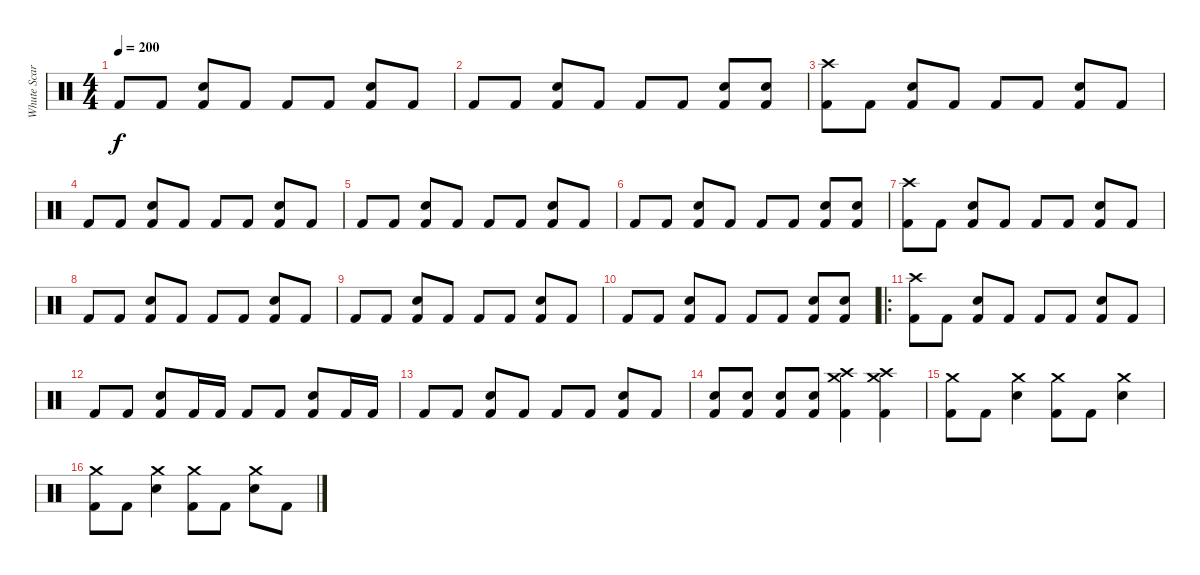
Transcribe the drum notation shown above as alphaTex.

\track ("Whute Scar" "Whute Scar") {instrument percussion}
\staff {score}
\articulation defaults
\ts (4 4)
\tempo 200
\clef neutral
\ks c "Kick (hit) 2".8{dy f} "Kick (hit) 2".8
("Snare (hit) 2" "Kick (hit) 2").8 "Kick (hit) 2".8 "Kick (hit) 2".8 "Kick (hit) 2".8 ("Snare (hit) 2" "Kick (hit) 2").8 "Kick (hit) 2".8 |
"Kick (hit) 2".8 "Kick (hit) 2".8 ("Snare (hit) 2" "Kick (hit) 2").8 "Kick (hit) 2".8 "Kick (hit) 2".8 "Kick (hit) 2".8 ("Snare (hit) 2" "Kick (hit) 2").8 ("Snare (hit) 2" "Kick (hit) 2").8 |
("Crash high (hit)" "Kick (hit) 2").8 "Kick (hit) 2".8 ("Snare (hit) 2" "Kick (hit) 2").8 "Kick (hit) 2".8 "Kick (hit) 2".8 "Kick (hit) 2".8 ("Snare (hit) 2" "Kick (hit) 2").8 "Kick (hit) 2".8 |
"Kick (hit) 2".8 "Kick (hit) 2".8 ("Snare (hit) 2" "Kick (hit) 2").8 "Kick (hit) 2".8 "Kick (hit) 2".8 "Kick (hit) 2".8 ("Snare (hit) 2" "Kick (hit) 2").8 "Kick (hit) 2".8 |
"Kick (hit) 2".8 "Kick (hit) 2".8 ("Snare (hit) 2" "Kick (hit) 2").8 "Kick (hit) 2".8 "Kick (hit) 2".8 "Kick (hit) 2".8 ("Snare (hit) 2" "Kick (hit) 2").8 "Kick (hit) 2".8 |
"Kick (hit) 2".8 "Kick (hit) 2".8 ("Snare (hit) 2" "Kick (hit) 2").8 "Kick (hit) 2".8 "Kick (hit) 2".8 "Kick (hit) 2".8 ("Snare (hit) 2" "Kick (hit) 2").8 ("Snare (hit) 2" "Kick (hit) 2").8 |
("Crash high (hit)" "Kick (hit) 2").8 "Kick (hit) 2".8 ("Snare (hit) 2" "Kick (hit) 2").8 "Kick (hit) 2".8 "Kick (hit) 2".8 "Kick (hit) 2".8 ("Snare (hit) 2" "Kick (hit) 2").8 "Kick (hit) 2".8 |
"Kick (hit) 2".8 "Kick (hit) 2".8 ("Snare (hit) 2" "Kick (hit) 2").8 "Kick (hit) 2".8 "Kick (hit) 2".8 "Kick (hit) 2".8 ("Snare (hit) 2" "Kick (hit) 2").8 "Kick (hit) 2".8 |
"Kick (hit) 2".8 "Kick (hit) 2".8 ("Snare (hit) 2" "Kick (hit) 2").8 "Kick (hit) 2".8 "Kick (hit) 2".8 "Kick (hit) 2".8 ("Snare (hit) 2" "Kick (hit) 2").8 "Kick (hit) 2".8 |
"Kick (hit) 2".8 "Kick (hit) 2".8 ("Snare (hit) 2" "Kick (hit) 2").8 "Kick (hit) 2".8 "Kick (hit) 2".8 "Kick (hit) 2".8 ("Snare (hit) 2" "Kick (hit) 2").8 ("Snare (hit) 2" "Kick (hit) 2").8 |
\ro
("Crash high (hit)" "Kick (hit) 2").8 "Kick (hit) 2".8 ("Snare (hit) 2" "Kick (hit) 2").8 "Kick (hit) 2".8 "Kick (hit) 2".8 "Kick (hit) 2".8 ("Snare (hit) 2" "Kick (hit) 2").8 "Kick (hit) 2".8 |
"Kick (hit) 2".8 "Kick (hit) 2".8 ("Snare (hit) 2" "Kick (hit) 2").8 "Kick (hit) 2".16 "Kick (hit) 2".16 "Kick (hit) 2".8 "Kick (hit) 2".8 ("Snare (hit) 2" "Kick (hit) 2").8 "Kick (hit) 2".16 "Kick (hit) 2".16 |
"Kick (hit) 2".8 "Kick (hit) 2".8 ("Snare (hit) 2" "Kick (hit) 2").8 "Kick (hit) 2".8 "Kick (hit) 2".8 "Kick (hit) 2".8 ("Snare (hit) 2" "Kick (hit) 2").8 "Kick (hit) 2".8 |
("Snare (hit) 2" "Kick (hit) 2").8 ("Snare (hit) 2" "Kick (hit) 2").8 ("Snare (hit) 2" "Kick (hit) 2").8 ("Snare (hit) 2" "Kick (hit) 2").8 ("Crash medium (hit)" "Crash high (hit)" "Kick (hit) 2").4 ("Crash medium (hit)" "Crash high (hit)" "Kick (hit) 2").4 |
("Crash medium (hit)" "Kick (hit) 2").8 "Kick (hit) 2".8 ("Crash medium (hit)" "Snare (hit) 2").4 ("Crash medium (hit)" "Kick (hit) 2").8 "Kick (hit) 2".8 ("Crash medium (hit)" "Snare (hit) 2").4 |
("Crash medium (hit)" "Kick (hit) 2").8 "Kick (hit) 2".8 ("Crash medium (hit)" "Snare (hit) 2").4 ("Crash medium (hit)" "Kick (hit) 2").8 "Kick (hit) 2".8 ("Crash medium (hit)" "Snare (hit) 2").8 "Kick (hit) 2".8
